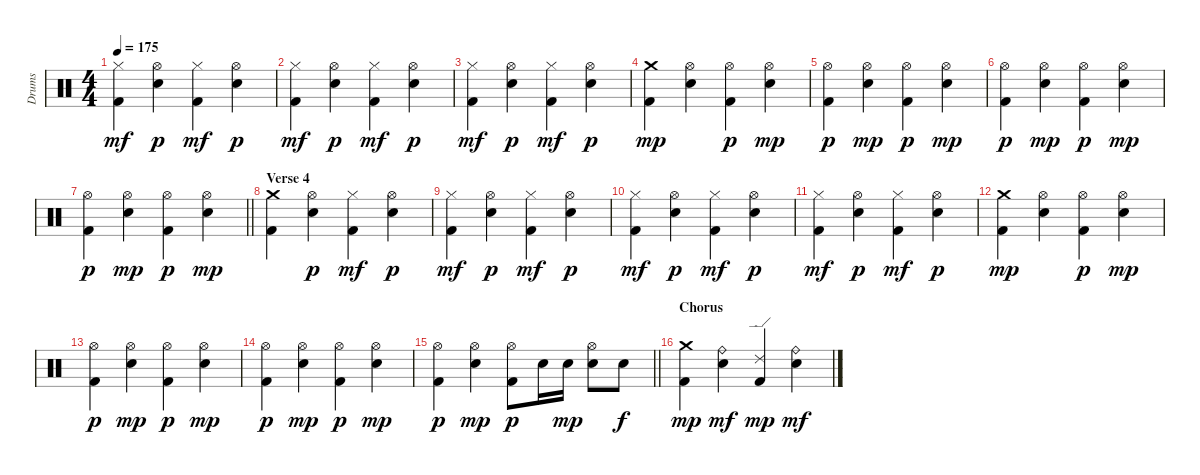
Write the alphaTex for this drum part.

\track ("Drums" "Drums") {instrument percussion}
\staff {score}
\articulation defaults
\ts (4 4)
\tempo 175
\clef neutral
\ks c
("Hi-Hat (closed)" "Kick (hit) 2").4{dy mf} ("Hi-Hat (open)" "Electric Snare (hit)").4{dy p} ("Hi-Hat (closed)" "Kick (hit) 2").4{dy mf} ("Hi-Hat (open)" "Electric Snare (hit)").4{dy p} |
("Hi-Hat (closed)" "Kick (hit) 2").4{dy mf} ("Hi-Hat (open)" "Electric Snare (hit)").4{dy p} ("Hi-Hat (closed)" "Kick (hit) 2").4{dy mf} ("Hi-Hat (open)" "Electric Snare (hit)").4{dy p} |
("Hi-Hat (closed)" "Kick (hit) 2").4{dy mf} ("Hi-Hat (open)" "Electric Snare (hit)").4{dy p} ("Hi-Hat (closed)" "Kick (hit) 2").4{dy mf} ("Hi-Hat (open)" "Electric Snare (hit)").4{dy p} |
("Crash medium (hit)" "Kick (hit) 2").4{dy mp} ("Hi-Hat (open)" "Electric Snare (hit)").4 ("Hi-Hat (open)" "Kick (hit) 2").4{dy p} ("Hi-Hat (open)" "Electric Snare (hit)").4{dy mp} |
("Hi-Hat (open)" "Kick (hit) 2").4{dy p} ("Hi-Hat (open)" "Electric Snare (hit)").4{dy mp} ("Hi-Hat (open)" "Kick (hit) 2").4{dy p} ("Hi-Hat (open)" "Electric Snare (hit)").4{dy mp} |
("Hi-Hat (open)" "Kick (hit) 2").4{dy p} ("Hi-Hat (open)" "Electric Snare (hit)").4{dy mp} ("Hi-Hat (open)" "Kick (hit) 2").4{dy p} ("Hi-Hat (open)" "Electric Snare (hit)").4{dy mp} |
\barLineRight lightlight
("Hi-Hat (open)" "Kick (hit) 2").4{dy p} ("Hi-Hat (open)" "Electric Snare (hit)").4{dy mp} ("Hi-Hat (open)" "Kick (hit) 2").4{dy p} ("Hi-Hat (open)" "Electric Snare (hit)").4{dy mp} |
\section ("" "Verse 4")
("Crash medium (hit)" "Kick (hit) 2").4 ("Hi-Hat (open)" "Electric Snare (hit)").4{dy p} ("Hi-Hat (closed)" "Kick (hit) 2").4{dy mf} ("Hi-Hat (open)" "Electric Snare (hit)").4{dy p} |
("Hi-Hat (closed)" "Kick (hit) 2").4{dy mf} ("Hi-Hat (open)" "Electric Snare (hit)").4{dy p} ("Hi-Hat (closed)" "Kick (hit) 2").4{dy mf} ("Hi-Hat (open)" "Electric Snare (hit)").4{dy p} |
("Hi-Hat (closed)" "Kick (hit) 2").4{dy mf} ("Hi-Hat (open)" "Electric Snare (hit)").4{dy p} ("Hi-Hat (closed)" "Kick (hit) 2").4{dy mf} ("Hi-Hat (open)" "Electric Snare (hit)").4{dy p} |
("Hi-Hat (closed)" "Kick (hit) 2").4{dy mf} ("Hi-Hat (open)" "Electric Snare (hit)").4{dy p} ("Hi-Hat (closed)" "Kick (hit) 2").4{dy mf} ("Hi-Hat (open)" "Electric Snare (hit)").4{dy p} |
("Crash medium (hit)" "Kick (hit) 2").4{dy mp} ("Hi-Hat (open)" "Electric Snare (hit)").4 ("Hi-Hat (open)" "Kick (hit) 2").4{dy p} ("Hi-Hat (open)" "Electric Snare (hit)").4{dy mp} |
("Hi-Hat (open)" "Kick (hit) 2").4{dy p} ("Hi-Hat (open)" "Electric Snare (hit)").4{dy mp} ("Hi-Hat (open)" "Kick (hit) 2").4{dy p} ("Hi-Hat (open)" "Electric Snare (hit)").4{dy mp} |
("Hi-Hat (open)" "Kick (hit) 2").4{dy p} ("Hi-Hat (open)" "Electric Snare (hit)").4{dy mp} ("Hi-Hat (open)" "Kick (hit) 2").4{dy p} ("Hi-Hat (open)" "Electric Snare (hit)").4{dy mp} |
\barLineRight lightlight
("Hi-Hat (open)" "Kick (hit) 2").4{dy p} ("Hi-Hat (open)" "Electric Snare (hit)").4{dy mp} ("Hi-Hat (open)" "Kick (hit) 2").8{dy p} "Electric Snare (hit)".16 "Electric Snare (hit)".16{dy mp} ("Hi-Hat (open)" "Electric Snare (hit)").8 "Electric Snare (hit)".8{dy f} |
\section ("" "Chorus")
("Crash medium (hit)" "Kick (hit) 2").4{dy mp} ("Ride (bell)" "Electric Snare (hit)").4{dy mf} ("Ride (edge) 2" "Kick (hit) 2").4{dy mp} ("Ride (bell)" "Electric Snare (hit)").4{dy mf}
